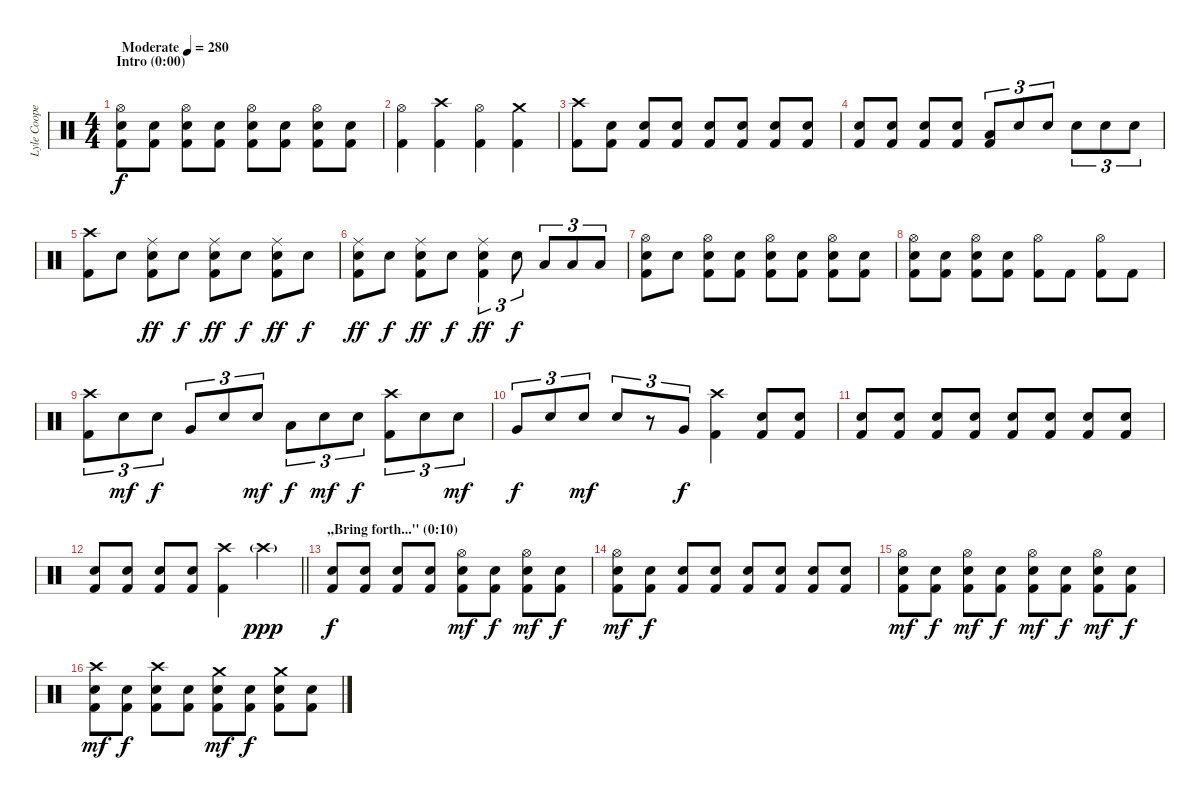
\track ("Lyle Cooper [Drums]" "Lyle Coope") {instrument percussion}
\staff {score}
\articulation defaults
\ts (4 4)
\section ("" "Intro (0:00)")
\tempo (280 "Moderate")
\clef neutral
\ks c
("Hi-Hat (open)" "Electric Snare (hit)" "Kick (hit) 2").8{dy f} ("Electric Snare (hit)" "Kick (hit) 2").8 ("Hi-Hat (open)" "Electric Snare (hit)" "Kick (hit) 2").8 ("Electric Snare (hit)" "Kick (hit) 2").8 ("Hi-Hat (open)" "Electric Snare (hit)" "Kick (hit) 2").8 ("Electric Snare (hit)" "Kick (hit) 2").8 ("Hi-Hat (open)" "Electric Snare (hit)" "Kick (hit) 2").8 ("Electric Snare (hit)" "Kick (hit) 2").8 |
("Hi-Hat (open)" "Kick (hit) 2").4 ("Crash high (hit)" "Kick (hit) 2").4 ("Hi-Hat (open)" "Kick (hit) 2").4 ("Crash medium (hit)" "Kick (hit) 2").4 |
("Crash high (hit)" "Kick (hit) 2").8 ("Electric Snare (hit)" "Kick (hit) 2").8 ("Electric Snare (hit)" "Kick (hit) 2").8 ("Electric Snare (hit)" "Kick (hit) 2").8 ("Electric Snare (hit)" "Kick (hit) 2").8 ("Electric Snare (hit)" "Kick (hit) 2").8 ("Electric Snare (hit)" "Kick (hit) 2").8 ("Electric Snare (hit)" "Kick (hit) 2").8 |
("Electric Snare (hit)" "Kick (hit) 2").8 ("Electric Snare (hit)" "Kick (hit) 2").8 ("Electric Snare (hit)" "Kick (hit) 2").8 ("Electric Snare (hit)" "Kick (hit) 2").8 ("Low Tom (hit)" "Kick (hit) 2").8{tu (3 2)} "Electric Snare (hit)".8{tu (3 2)} "Electric Snare (hit)".8{tu (3 2)} "Electric Snare (hit)".8{tu (3 2)} "Electric Snare (hit)".8{tu (3 2)} "Electric Snare (hit)".8{tu (3 2)} |
("Crash high (hit)" "Kick (hit) 2").8 "Electric Snare (hit)".8 ("Ride (middle)" "Electric Snare (hit)" "Kick (hit) 2").8{dy ff} "Electric Snare (hit)".8{dy f} ("Ride (middle)" "Electric Snare (hit)" "Kick (hit) 2").8{dy ff} "Electric Snare (hit)".8{dy f} ("Ride (middle)" "Electric Snare (hit)" "Kick (hit) 2").8{dy ff} "Electric Snare (hit)".8{dy f} |
("Ride (middle)" "Electric Snare (hit)" "Kick (hit) 2").8{dy ff} "Electric Snare (hit)".8{dy f} ("Ride (middle)" "Electric Snare (hit)" "Kick (hit) 2").8{dy ff} "Electric Snare (hit)".8{dy f} ("Ride (middle)" "Electric Snare (hit)" "Kick (hit) 2").4{tu (3 2) dy ff} "Electric Snare (hit)".8{tu (3 2) dy f} "Low Tom (hit)".8{tu (3 2)} "Low Tom (hit)".8{tu (3 2)} "Low Tom (hit)".8{tu (3 2)} |
("Hi-Hat (open)" "Electric Snare (hit)" "Kick (hit) 2").8 "Electric Snare (hit)".8 ("Hi-Hat (open)" "Electric Snare (hit)" "Kick (hit) 2").8 ("Electric Snare (hit)" "Kick (hit) 2").8 ("Hi-Hat (open)" "Electric Snare (hit)" "Kick (hit) 2").8 ("Electric Snare (hit)" "Kick (hit) 2").8 ("Hi-Hat (open)" "Electric Snare (hit)" "Kick (hit) 2").8 ("Electric Snare (hit)" "Kick (hit) 2").8 |
("Hi-Hat (open)" "Electric Snare (hit)" "Kick (hit) 2").8 ("Electric Snare (hit)" "Kick (hit) 2").8 ("Hi-Hat (open)" "Electric Snare (hit)" "Kick (hit) 2").8 ("Electric Snare (hit)" "Kick (hit) 2").8 ("Hi-Hat (open)" "Kick (hit) 2").8 "Kick (hit) 2".8 ("Hi-Hat (open)" "Kick (hit) 2").8 "Kick (hit) 2".8 |
("Crash high (hit)" "Kick (hit) 2").8{tu (3 2)} "Electric Snare (hit)".8{tu (3 2) dy mf} "Electric Snare (hit)".8{tu (3 2) dy f} "Very Low Tom (hit)".8{tu (3 2)} "Electric Snare (hit)".8{tu (3 2)} "Electric Snare (hit)".8{tu (3 2) dy mf} "Low Tom (hit)".8{tu (3 2) dy f} "Electric Snare (hit)".8{tu (3 2) dy mf} "Electric Snare (hit)".8{tu (3 2) dy f} ("Crash high (hit)" "Kick (hit) 2").8{tu (3 2)} "Electric Snare (hit)".8{tu (3 2)} "Electric Snare (hit)".8{tu (3 2) dy mf} |
"Very Low Tom (hit)".8{tu (3 2) dy f} "Electric Snare (hit)".8{tu (3 2)} "Electric Snare (hit)".8{tu (3 2) dy mf} "Electric Snare (hit)".8{tu (3 2)} r.8{tu (3 2)} "Very Low Tom (hit)".8{tu (3 2) dy f} ("Crash high (hit)" "Kick (hit) 2").4 ("Electric Snare (hit)" "Kick (hit) 2").8 ("Electric Snare (hit)" "Kick (hit) 2").8 |
("Electric Snare (hit)" "Kick (hit) 2").8 ("Electric Snare (hit)" "Kick (hit) 2").8 ("Electric Snare (hit)" "Kick (hit) 2").8 ("Electric Snare (hit)" "Kick (hit) 2").8 ("Electric Snare (hit)" "Kick (hit) 2").8 ("Electric Snare (hit)" "Kick (hit) 2").8 ("Electric Snare (hit)" "Kick (hit) 2").8 ("Electric Snare (hit)" "Kick (hit) 2").8 |
\barLineRight lightlight
("Electric Snare (hit)" "Kick (hit) 2").8 ("Electric Snare (hit)" "Kick (hit) 2").8 ("Electric Snare (hit)" "Kick (hit) 2").8 ("Electric Snare (hit)" "Kick (hit) 2").8 ("Crash high (hit)" "Kick (hit) 2").4 "Crash high (hit)"{g}.4{dy ppp} |
\section ("" ",,Bring forth...'' (0:10)")
("Electric Snare (hit)" "Kick (hit) 2").8{dy f} ("Electric Snare (hit)" "Kick (hit) 2").8 ("Electric Snare (hit)" "Kick (hit) 2").8 ("Electric Snare (hit)" "Kick (hit) 2").8 ("Hi-Hat (open)" "Electric Snare (hit)" "Kick (hit) 2").8{dy mf} ("Electric Snare (hit)" "Kick (hit) 2").8{dy f} ("Hi-Hat (open)" "Electric Snare (hit)" "Kick (hit) 2").8{dy mf} ("Electric Snare (hit)" "Kick (hit) 2").8{dy f} |
("Hi-Hat (open)" "Electric Snare (hit)" "Kick (hit) 2").8{dy mf} ("Electric Snare (hit)" "Kick (hit) 2").8{dy f} ("Electric Snare (hit)" "Kick (hit) 2").8 ("Electric Snare (hit)" "Kick (hit) 2").8 ("Electric Snare (hit)" "Kick (hit) 2").8 ("Electric Snare (hit)" "Kick (hit) 2").8 ("Electric Snare (hit)" "Kick (hit) 2").8 ("Electric Snare (hit)" "Kick (hit) 2").8 |
("Hi-Hat (open)" "Electric Snare (hit)" "Kick (hit) 2").8{dy mf} ("Electric Snare (hit)" "Kick (hit) 2").8{dy f} ("Hi-Hat (open)" "Electric Snare (hit)" "Kick (hit) 2").8{dy mf} ("Electric Snare (hit)" "Kick (hit) 2").8{dy f} ("Hi-Hat (open)" "Electric Snare (hit)" "Kick (hit) 2").8{dy mf} ("Electric Snare (hit)" "Kick (hit) 2").8{dy f} ("Hi-Hat (open)" "Electric Snare (hit)" "Kick (hit) 2").8{dy mf} ("Electric Snare (hit)" "Kick (hit) 2").8{dy f} |
("Crash high (hit)" "Electric Snare (hit)" "Kick (hit) 2").8{dy mf} ("Electric Snare (hit)" "Kick (hit) 2").8{dy f} ("Crash high (hit)" "Electric Snare (hit)" "Kick (hit) 2").8 ("Electric Snare (hit)" "Kick (hit) 2").8 ("Crash medium (hit)" "Electric Snare (hit)" "Kick (hit) 2").8{dy mf} ("Electric Snare (hit)" "Kick (hit) 2").8{dy f} ("Crash medium (hit)" "Electric Snare (hit)" "Kick (hit) 2").8 ("Electric Snare (hit)" "Kick (hit) 2").8
